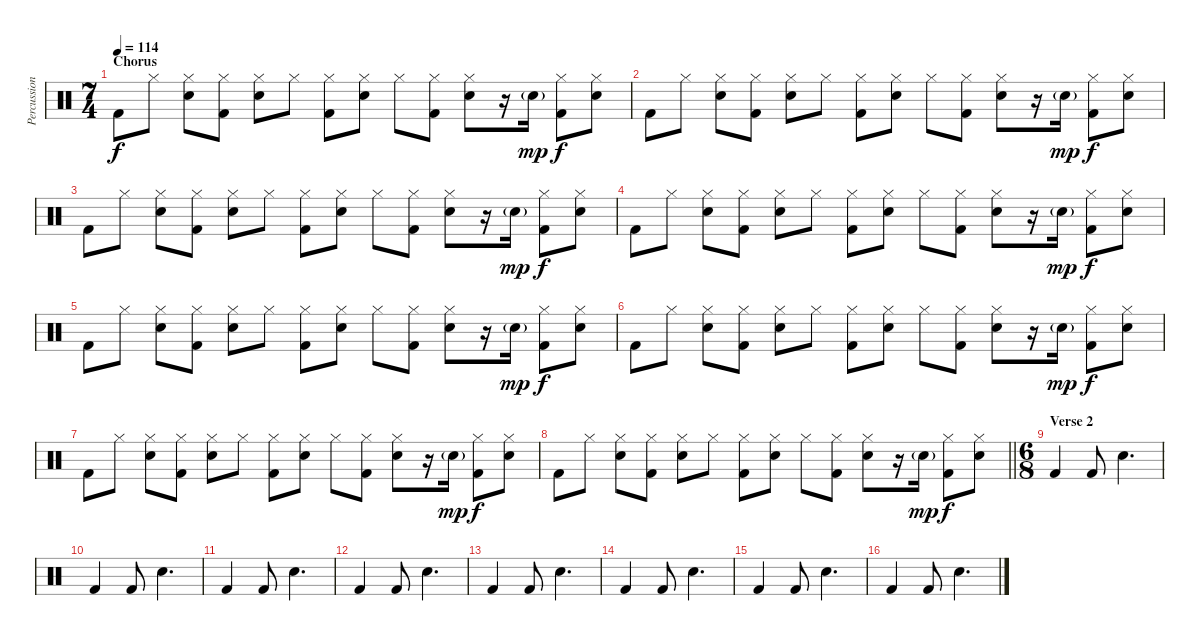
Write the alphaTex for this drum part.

\track ("Percussion" "Percussion") {instrument percussion}
\staff {score}
\articulation defaults
\ts (7 4)
\section ("" "Chorus")
\tempo 114
\clef neutral
\ks c "Kick (hit) 2".8{dy f} "Hi-Hat (closed)".8
("Hi-Hat (closed)" "Snare (hit) 2").8 ("Hi-Hat (closed)" "Kick (hit) 2").8 ("Hi-Hat (closed)" "Snare (hit) 2").8 "Hi-Hat (closed)".8 ("Hi-Hat (closed)" "Kick (hit) 2").8 ("Hi-Hat (closed)" "Snare (hit) 2").8 "Hi-Hat (closed)".8 ("Hi-Hat (closed)" "Kick (hit) 2").8 ("Hi-Hat (closed)" "Snare (hit) 2").8 r.16 "Snare (hit) 2"{g}.16{dy mp} ("Hi-Hat (closed)" "Kick (hit) 2").8{dy f} ("Hi-Hat (closed)" "Snare (hit) 2").8 |
"Kick (hit) 2".8 "Hi-Hat (closed)".8 ("Hi-Hat (closed)" "Snare (hit) 2").8 ("Hi-Hat (closed)" "Kick (hit) 2").8 ("Hi-Hat (closed)" "Snare (hit) 2").8 "Hi-Hat (closed)".8 ("Hi-Hat (closed)" "Kick (hit) 2").8 ("Hi-Hat (closed)" "Snare (hit) 2").8 "Hi-Hat (closed)".8 ("Hi-Hat (closed)" "Kick (hit) 2").8 ("Hi-Hat (closed)" "Snare (hit) 2").8 r.16 "Snare (hit) 2"{g}.16{dy mp} ("Hi-Hat (closed)" "Kick (hit) 2").8{dy f} ("Hi-Hat (closed)" "Snare (hit) 2").8 |
"Kick (hit) 2".8 "Hi-Hat (closed)".8 ("Hi-Hat (closed)" "Snare (hit) 2").8 ("Hi-Hat (closed)" "Kick (hit) 2").8 ("Hi-Hat (closed)" "Snare (hit) 2").8 "Hi-Hat (closed)".8 ("Hi-Hat (closed)" "Kick (hit) 2").8 ("Hi-Hat (closed)" "Snare (hit) 2").8 "Hi-Hat (closed)".8 ("Hi-Hat (closed)" "Kick (hit) 2").8 ("Hi-Hat (closed)" "Snare (hit) 2").8 r.16 "Snare (hit) 2"{g}.16{dy mp} ("Hi-Hat (closed)" "Kick (hit) 2").8{dy f} ("Hi-Hat (closed)" "Snare (hit) 2").8 |
"Kick (hit) 2".8 "Hi-Hat (closed)".8 ("Hi-Hat (closed)" "Snare (hit) 2").8 ("Hi-Hat (closed)" "Kick (hit) 2").8 ("Hi-Hat (closed)" "Snare (hit) 2").8 "Hi-Hat (closed)".8 ("Hi-Hat (closed)" "Kick (hit) 2").8 ("Hi-Hat (closed)" "Snare (hit) 2").8 "Hi-Hat (closed)".8 ("Hi-Hat (closed)" "Kick (hit) 2").8 ("Hi-Hat (closed)" "Snare (hit) 2").8 r.16 "Snare (hit) 2"{g}.16{dy mp} ("Hi-Hat (closed)" "Kick (hit) 2").8{dy f} ("Hi-Hat (closed)" "Snare (hit) 2").8 |
"Kick (hit) 2".8 "Hi-Hat (closed)".8 ("Hi-Hat (closed)" "Snare (hit) 2").8 ("Hi-Hat (closed)" "Kick (hit) 2").8 ("Hi-Hat (closed)" "Snare (hit) 2").8 "Hi-Hat (closed)".8 ("Hi-Hat (closed)" "Kick (hit) 2").8 ("Hi-Hat (closed)" "Snare (hit) 2").8 "Hi-Hat (closed)".8 ("Hi-Hat (closed)" "Kick (hit) 2").8 ("Hi-Hat (closed)" "Snare (hit) 2").8 r.16 "Snare (hit) 2"{g}.16{dy mp} ("Hi-Hat (closed)" "Kick (hit) 2").8{dy f} ("Hi-Hat (closed)" "Snare (hit) 2").8 |
"Kick (hit) 2".8 "Hi-Hat (closed)".8 ("Hi-Hat (closed)" "Snare (hit) 2").8 ("Hi-Hat (closed)" "Kick (hit) 2").8 ("Hi-Hat (closed)" "Snare (hit) 2").8 "Hi-Hat (closed)".8 ("Hi-Hat (closed)" "Kick (hit) 2").8 ("Hi-Hat (closed)" "Snare (hit) 2").8 "Hi-Hat (closed)".8 ("Hi-Hat (closed)" "Kick (hit) 2").8 ("Hi-Hat (closed)" "Snare (hit) 2").8 r.16 "Snare (hit) 2"{g}.16{dy mp} ("Hi-Hat (closed)" "Kick (hit) 2").8{dy f} ("Hi-Hat (closed)" "Snare (hit) 2").8 |
"Kick (hit) 2".8 "Hi-Hat (closed)".8 ("Hi-Hat (closed)" "Snare (hit) 2").8 ("Hi-Hat (closed)" "Kick (hit) 2").8 ("Hi-Hat (closed)" "Snare (hit) 2").8 "Hi-Hat (closed)".8 ("Hi-Hat (closed)" "Kick (hit) 2").8 ("Hi-Hat (closed)" "Snare (hit) 2").8 "Hi-Hat (closed)".8 ("Hi-Hat (closed)" "Kick (hit) 2").8 ("Hi-Hat (closed)" "Snare (hit) 2").8 r.16 "Snare (hit) 2"{g}.16{dy mp} ("Hi-Hat (closed)" "Kick (hit) 2").8{dy f} ("Hi-Hat (closed)" "Snare (hit) 2").8 |
\barLineRight lightlight "Kick (hit) 2".8 "Hi-Hat (closed)".8
("Hi-Hat (closed)" "Snare (hit) 2").8 ("Hi-Hat (closed)" "Kick (hit) 2").8 ("Hi-Hat (closed)" "Snare (hit) 2").8 "Hi-Hat (closed)".8 ("Hi-Hat (closed)" "Kick (hit) 2").8 ("Hi-Hat (closed)" "Snare (hit) 2").8 "Hi-Hat (closed)".8 ("Hi-Hat (closed)" "Kick (hit) 2").8 ("Hi-Hat (closed)" "Snare (hit) 2").8 r.16 "Snare (hit) 2"{g}.16{dy mp} ("Hi-Hat (closed)" "Kick (hit) 2").8{dy f} ("Hi-Hat (closed)" "Snare (hit) 2").8 |
\ts (6 8)
\section ("" "Verse 2")
"Kick (hit) 2".4 "Kick (hit) 2".8 "Snare (hit) 2".4{d} |
"Kick (hit) 2".4 "Kick (hit) 2".8 "Snare (hit) 2".4{d} |
"Kick (hit) 2".4 "Kick (hit) 2".8 "Snare (hit) 2".4{d} |
"Kick (hit) 2".4 "Kick (hit) 2".8 "Snare (hit) 2".4{d} |
"Kick (hit) 2".4 "Kick (hit) 2".8 "Snare (hit) 2".4{d} |
"Kick (hit) 2".4 "Kick (hit) 2".8 "Snare (hit) 2".4{d} |
"Kick (hit) 2".4 "Kick (hit) 2".8 "Snare (hit) 2".4{d} |
"Kick (hit) 2".4 "Kick (hit) 2".8 "Snare (hit) 2".4{d}
